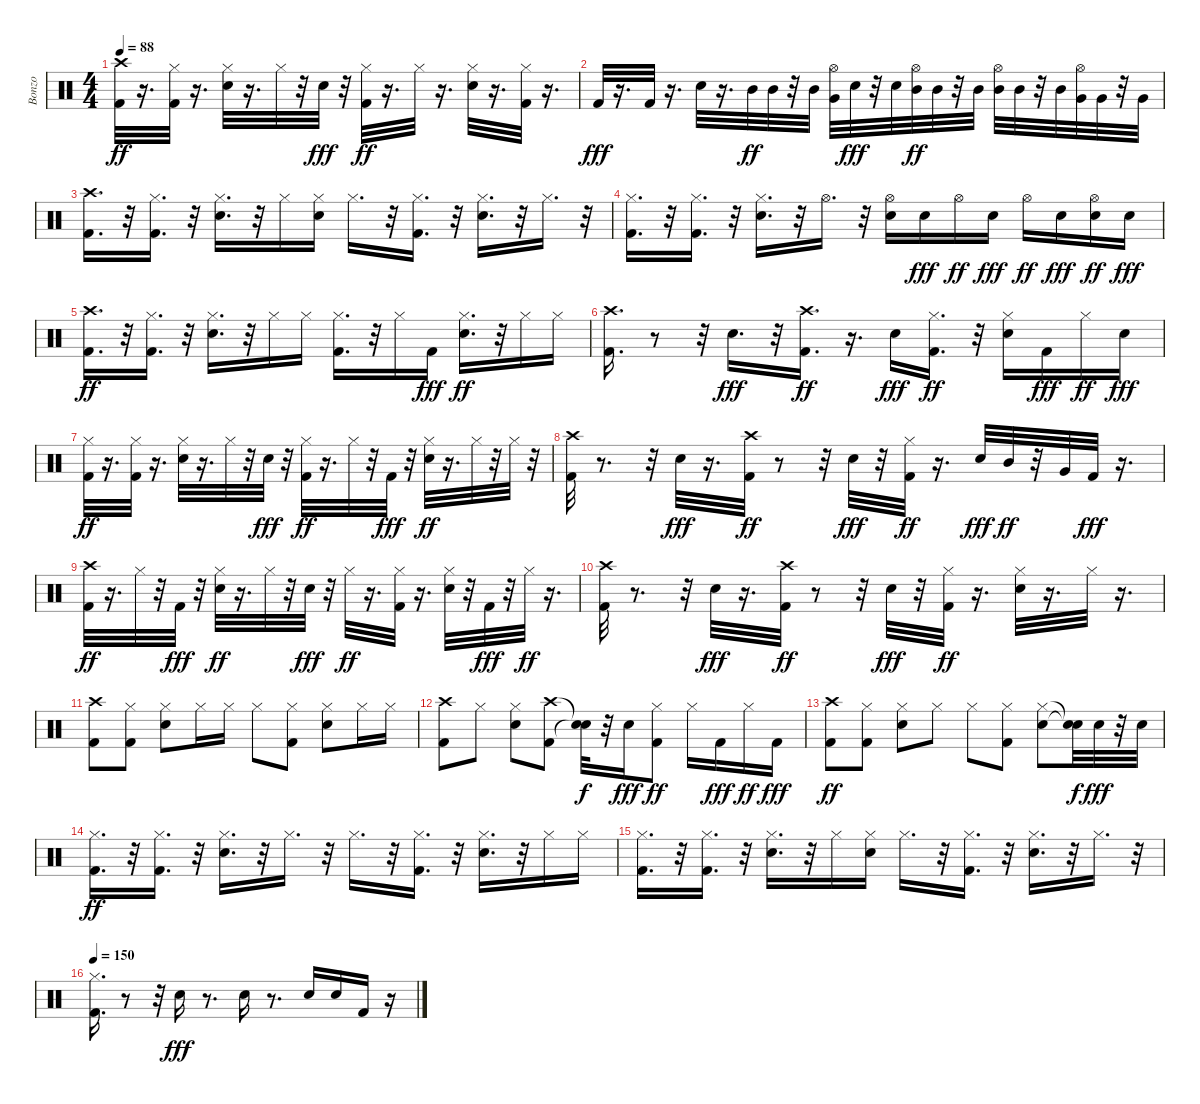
\track ("Bonzo" "Bonzo") {instrument percussion}
\staff {score}
\articulation defaults
\ts (4 4)
\tempo 88
\clef neutral
\ks c
("Kick (hit) 2" "Crash high (hit)").32{dy ff} r.16{d} ("Kick (hit) 2" "Hi-Hat (closed)").32 r.16{d} ("Snare (hit) 2" "Hi-Hat (closed)").32 r.16{d} "Hi-Hat (closed)".32 r.32 "Snare (hit) 2".32{dy fff} r.32 ("Kick (hit) 2" "Hi-Hat (closed)").32{dy ff} r.16{d} "Hi-Hat (closed)".32 r.16{d} ("Snare (hit) 2" "Hi-Hat (closed)").32 r.16{d} ("Kick (hit) 2" "Hi-Hat (closed)").32 r.16{d} |
"Kick (hit) 2".32{dy fff} r.16{d} "Kick (hit) 2".32 r.16{d} "Snare (hit) 2".32 r.16{d} "Mid Tom (hit)".32{dy ff} "Mid Tom (hit)".32 r.32 "Mid Tom (hit)".32 ("Very Low Tom (hit)" "Hi-Hat (open)").32 "Snare (hit) 2".32{dy fff} r.32 "Snare (hit) 2".32 ("Hi-Hat (open)" "Mid Tom (hit)").32{dy ff} "Mid Tom (hit)".32 r.32 "Mid Tom (hit)".32 ("Hi-Hat (open)" "Mid Tom (hit)").32 "Mid Tom (hit)".32 r.32 "Mid Tom (hit)".32 ("Very Low Tom (hit)" "Hi-Hat (open)").32 "Very Low Tom (hit)".32 r.32 "Very Low Tom (hit)".32 |
("Kick (hit) 2" "Crash high (hit)").16{d} r.32 ("Kick (hit) 2" "Hi-Hat (closed)").16{d} r.32 ("Snare (hit) 2" "Hi-Hat (closed)").16{d} r.32 "Hi-Hat (closed)".16 ("Snare (hit) 2" "Hi-Hat (closed)").16 "Hi-Hat (closed)".16{d} r.32 ("Kick (hit) 2" "Hi-Hat (closed)").16{d} r.32 ("Snare (hit) 2" "Hi-Hat (closed)").16{d} r.32 "Hi-Hat (closed)".16{d} r.32 |
("Kick (hit) 2" "Hi-Hat (closed)").16{d} r.32 ("Kick (hit) 2" "Hi-Hat (closed)").16{d} r.32 ("Snare (hit) 2" "Hi-Hat (closed)").16{d} r.32 "Hi-Hat (open)".16{d} r.32 ("Snare (hit) 2" "Hi-Hat (open)").16 "Snare (hit) 2".16{dy fff} "Hi-Hat (open)".16{dy ff} "Snare (hit) 2".16{dy fff} "Hi-Hat (open)".16{dy ff} "Snare (hit) 2".16{dy fff} ("Snare (hit) 2" "Hi-Hat (open)").16{dy ff} "Snare (hit) 2".16{dy fff} |
("Kick (hit) 2" "Crash high (hit)").16{d dy ff} r.32 ("Kick (hit) 2" "Hi-Hat (closed)").16{d} r.32 ("Snare (hit) 2" "Hi-Hat (closed)").16{d} r.32 "Hi-Hat (closed)".16 "Hi-Hat (closed)".16 ("Kick (hit) 2" "Hi-Hat (closed)").16{d} r.32 "Hi-Hat (closed)".16 "Kick (hit) 2".16{dy fff} ("Snare (hit) 2" "Hi-Hat (closed)").16{d dy ff} r.32 "Hi-Hat (closed)".16 "Hi-Hat (closed)".16 |
("Kick (hit) 2" "Crash high (hit)").16{d} r.8 r.32 "Snare (hit) 2".16{d dy fff} r.32 ("Kick (hit) 2" "Crash high (hit)").16{d dy ff} r.16{d} "Snare (hit) 2".16{dy fff} ("Kick (hit) 2" "Hi-Hat (closed)").16{d dy ff} r.32 ("Snare (hit) 2" "Hi-Hat (closed)").16 "Kick (hit) 2".16{dy fff} "Hi-Hat (closed)".16{dy ff} "Snare (hit) 2".16{dy fff} |
("Kick (hit) 2" "Hi-Hat (closed)").32{dy ff} r.16{d} ("Kick (hit) 2" "Hi-Hat (closed)").32 r.16{d} ("Snare (hit) 2" "Hi-Hat (closed)").32 r.16{d} "Hi-Hat (closed)".32 r.32 "Snare (hit) 2".32{dy fff} r.32 ("Kick (hit) 2" "Hi-Hat (closed)").32{dy ff} r.16{d} "Hi-Hat (closed)".32 r.32 "Kick (hit) 2".32{dy fff} r.32 ("Snare (hit) 2" "Hi-Hat (closed)").32{dy ff} r.16{d} "Hi-Hat (closed)".32 r.32 "Hi-Hat (closed)".32 r.32 |
("Kick (hit) 2" "Crash high (hit)").32 r.8{d} r.32 "Snare (hit) 2".32{dy fff} r.16{d} ("Kick (hit) 2" "Crash high (hit)").32{dy ff} r.8 r.32 "Snare (hit) 2".32{dy fff} r.32 ("Kick (hit) 2" "Hi-Hat (closed)").32{dy ff} r.16{d} "Snare (hit) 2".32{dy fff} "Mid Tom (hit)".32{dy ff} r.32 "Very Low Tom (hit)".32 "Kick (hit) 2".32{dy fff} r.16{d} |
("Kick (hit) 2" "Crash high (hit)").32{dy ff} r.16{d} "Hi-Hat (closed)".32 r.32 "Kick (hit) 2".32{dy fff} r.32 ("Snare (hit) 2" "Hi-Hat (closed)").32{dy ff} r.16{d} "Hi-Hat (closed)".32 r.32 "Snare (hit) 2".32{dy fff} r.32 "Hi-Hat (closed)".32{dy ff} r.16{d} ("Kick (hit) 2" "Hi-Hat (closed)").32 r.16{d} ("Snare (hit) 2" "Hi-Hat (closed)").32 r.32 "Kick (hit) 2".32{dy fff} r.32 "Hi-Hat (closed)".32{dy ff} r.16{d} |
("Kick (hit) 2" "Crash high (hit)").32 r.8{d} r.32 "Snare (hit) 2".32{dy fff} r.16{d} ("Kick (hit) 2" "Crash high (hit)").32{dy ff} r.8 r.32 "Snare (hit) 2".32{dy fff} r.32 ("Kick (hit) 2" "Hi-Hat (closed)").32{dy ff} r.16{d} ("Snare (hit) 2" "Hi-Hat (closed)").32 r.16{d} "Hi-Hat (closed)".32 r.16{d} |
("Kick (hit) 2" "Crash high (hit)").8 ("Kick (hit) 2" "Hi-Hat (closed)").8 ("Snare (hit) 2" "Hi-Hat (closed)").8 "Hi-Hat (closed)".16 "Hi-Hat (closed)".16 "Hi-Hat (closed)".8 ("Kick (hit) 2" "Hi-Hat (closed)").8 ("Snare (hit) 2" "Hi-Hat (closed)").8 "Hi-Hat (closed)".16 "Hi-Hat (closed)".16 |
("Kick (hit) 2" "Crash high (hit)").8 "Hi-Hat (closed)".8 ("Snare (hit) 2" "Hi-Hat (closed)").8 ("Kick (hit) 2" "Crash high (hit)").8 ("Snare (hit)"{t} "Snare (hit)"{t}).32{dy f} r.32 "Snare (hit) 2".16{dy fff} ("Kick (hit) 2" "Hi-Hat (closed)").8{dy ff} "Hi-Hat (closed)".16 "Kick (hit) 2".16{dy fff} "Hi-Hat (closed)".16{dy ff} "Kick (hit) 2".16{dy fff} |
("Kick (hit) 2" "Crash high (hit)").8{dy ff} ("Kick (hit) 2" "Hi-Hat (closed)").8 ("Snare (hit) 2" "Hi-Hat (closed)").8 "Hi-Hat (closed)".8 "Hi-Hat (closed)".8 ("Kick (hit) 2" "Hi-Hat (closed)").8 ("Snare (hit) 2" "Hi-Hat (closed)").8 ("Snare (hit)"{t} "Snare (hit)"{t}).32{dy f} "Snare (hit) 2".32{dy fff} r.32 "Snare (hit) 2".32 |
("Kick (hit) 2" "Hi-Hat (closed)").16{d dy ff} r.32 ("Kick (hit) 2" "Hi-Hat (closed)").16{d} r.32 ("Snare (hit) 2" "Hi-Hat (closed)").16{d} r.32 "Hi-Hat (closed)".16{d} r.32 "Hi-Hat (closed)".16{d} r.32 ("Kick (hit) 2" "Hi-Hat (closed)").16{d} r.32 ("Snare (hit) 2" "Hi-Hat (closed)").16{d} r.32 "Hi-Hat (closed)".16 "Hi-Hat (closed)".16 |
("Kick (hit) 2" "Hi-Hat (closed)").16{d} r.32 ("Kick (hit) 2" "Hi-Hat (closed)").16{d} r.32 ("Snare (hit) 2" "Hi-Hat (closed)").16{d} r.32 "Hi-Hat (closed)".16 ("Snare (hit) 2" "Hi-Hat (closed)").16 "Hi-Hat (closed)".16{d} r.32 ("Kick (hit) 2" "Hi-Hat (closed)").16{d} r.32 ("Snare (hit) 2" "Hi-Hat (closed)").16{d} r.32 "Hi-Hat (closed)".16{d} r.32 |
\tempo 150
("Kick (hit) 2" "Hi-Hat (closed)").16{d} r.8 r.32 "Snare (hit) 2".16{dy fff} r.8{d} "Snare (hit) 2".16 r.8{d} "Snare (hit) 2".16 "Snare (hit) 2".16 "Kick (hit) 2".16 r.16
